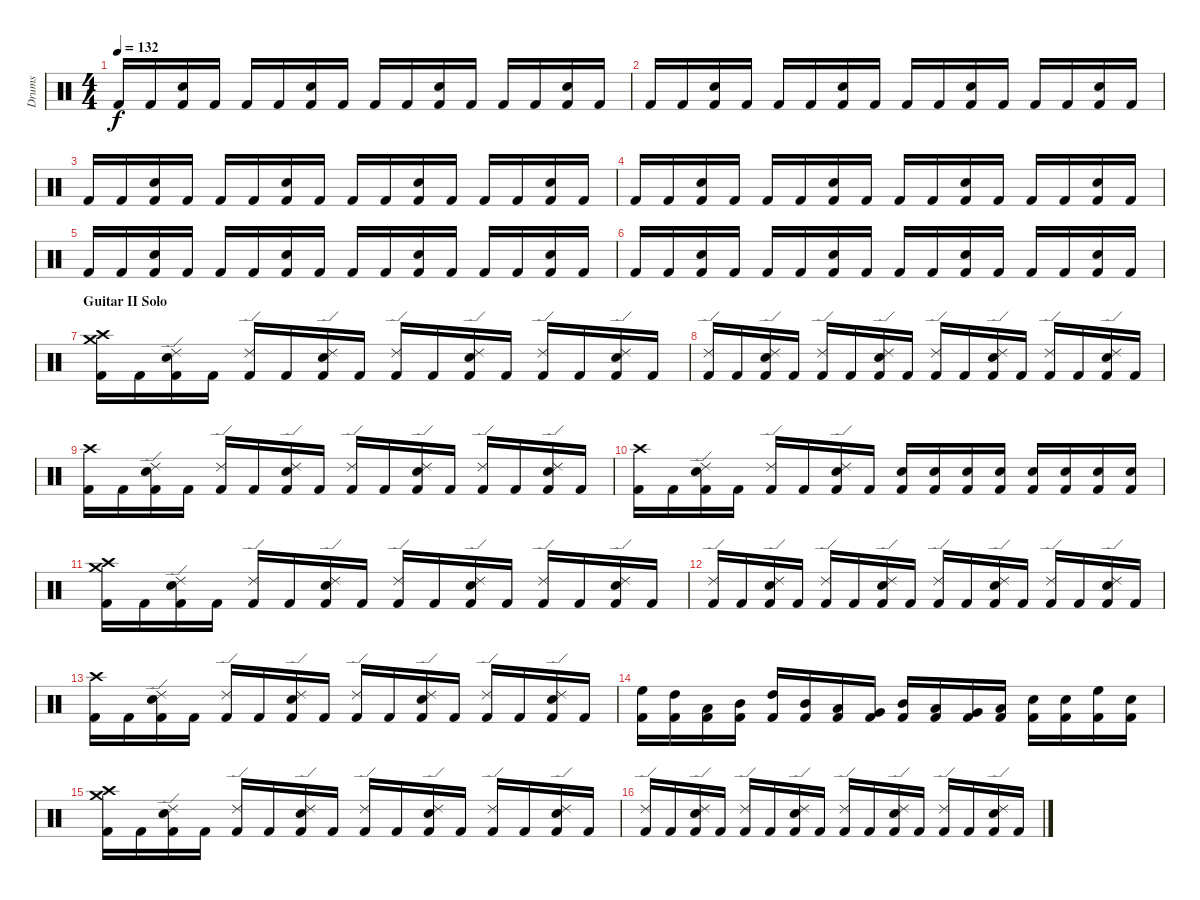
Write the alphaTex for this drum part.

\track ("Drums" "Drums") {instrument percussion}
\staff {score}
\articulation defaults
\ts (4 4)
\tempo 132
\clef neutral
\ks c "Kick (hit) 2".16{dy f} "Kick (hit) 2".16
("Electric Snare (hit)" "Kick (hit) 2").16 "Kick (hit) 2".16 "Kick (hit) 2".16 "Kick (hit) 2".16 ("Electric Snare (hit)" "Kick (hit) 2").16 "Kick (hit) 2".16 "Kick (hit) 2".16 "Kick (hit) 2".16 ("Electric Snare (hit)" "Kick (hit) 2").16 "Kick (hit) 2".16 "Kick (hit) 2".16 "Kick (hit) 2".16 ("Electric Snare (hit)" "Kick (hit) 2").16 "Kick (hit) 2".16 |
"Kick (hit) 2".16 "Kick (hit) 2".16 ("Electric Snare (hit)" "Kick (hit) 2").16 "Kick (hit) 2".16 "Kick (hit) 2".16 "Kick (hit) 2".16 ("Electric Snare (hit)" "Kick (hit) 2").16 "Kick (hit) 2".16 "Kick (hit) 2".16 "Kick (hit) 2".16 ("Electric Snare (hit)" "Kick (hit) 2").16 "Kick (hit) 2".16 "Kick (hit) 2".16 "Kick (hit) 2".16 ("Electric Snare (hit)" "Kick (hit) 2").16 "Kick (hit) 2".16 |
"Kick (hit) 2".16 "Kick (hit) 2".16 ("Electric Snare (hit)" "Kick (hit) 2").16 "Kick (hit) 2".16 "Kick (hit) 2".16 "Kick (hit) 2".16 ("Electric Snare (hit)" "Kick (hit) 2").16 "Kick (hit) 2".16 "Kick (hit) 2".16 "Kick (hit) 2".16 ("Electric Snare (hit)" "Kick (hit) 2").16 "Kick (hit) 2".16 "Kick (hit) 2".16 "Kick (hit) 2".16 ("Electric Snare (hit)" "Kick (hit) 2").16 "Kick (hit) 2".16 |
"Kick (hit) 2".16 "Kick (hit) 2".16 ("Electric Snare (hit)" "Kick (hit) 2").16 "Kick (hit) 2".16 "Kick (hit) 2".16 "Kick (hit) 2".16 ("Electric Snare (hit)" "Kick (hit) 2").16 "Kick (hit) 2".16 "Kick (hit) 2".16 "Kick (hit) 2".16 ("Electric Snare (hit)" "Kick (hit) 2").16 "Kick (hit) 2".16 "Kick (hit) 2".16 "Kick (hit) 2".16 ("Electric Snare (hit)" "Kick (hit) 2").16 "Kick (hit) 2".16 |
"Kick (hit) 2".16 "Kick (hit) 2".16 ("Electric Snare (hit)" "Kick (hit) 2").16 "Kick (hit) 2".16 "Kick (hit) 2".16 "Kick (hit) 2".16 ("Electric Snare (hit)" "Kick (hit) 2").16 "Kick (hit) 2".16 "Kick (hit) 2".16 "Kick (hit) 2".16 ("Electric Snare (hit)" "Kick (hit) 2").16 "Kick (hit) 2".16 "Kick (hit) 2".16 "Kick (hit) 2".16 ("Electric Snare (hit)" "Kick (hit) 2").16 "Kick (hit) 2".16 |
"Kick (hit) 2".16 "Kick (hit) 2".16 ("Electric Snare (hit)" "Kick (hit) 2").16 "Kick (hit) 2".16 "Kick (hit) 2".16 "Kick (hit) 2".16 ("Electric Snare (hit)" "Kick (hit) 2").16 "Kick (hit) 2".16 "Kick (hit) 2".16 "Kick (hit) 2".16 ("Electric Snare (hit)" "Kick (hit) 2").16 "Kick (hit) 2".16 "Kick (hit) 2".16 "Kick (hit) 2".16 ("Electric Snare (hit)" "Kick (hit) 2").16 "Kick (hit) 2".16 |
\section ("" "Guitar II Solo")
("Crash medium (hit)" "Crash high (hit)" "Kick (hit) 2").16 "Kick (hit) 2".16 ("Ride (edge) 2" "Electric Snare (hit)" "Kick (hit) 2").16 "Kick (hit) 2".16 ("Ride (edge) 2" "Kick (hit) 2").16 "Kick (hit) 2".16 ("Ride (edge) 2" "Electric Snare (hit)" "Kick (hit) 2").16 "Kick (hit) 2".16 ("Ride (edge) 2" "Kick (hit) 2").16 "Kick (hit) 2".16 ("Ride (edge) 2" "Electric Snare (hit)" "Kick (hit) 2").16 "Kick (hit) 2".16 ("Ride (edge) 2" "Kick (hit) 2").16 "Kick (hit) 2".16 ("Ride (edge) 2" "Electric Snare (hit)" "Kick (hit) 2").16 "Kick (hit) 2".16 |
("Ride (edge) 2" "Kick (hit) 2").16 "Kick (hit) 2".16 ("Ride (edge) 2" "Electric Snare (hit)" "Kick (hit) 2").16 "Kick (hit) 2".16 ("Ride (edge) 2" "Kick (hit) 2").16 "Kick (hit) 2".16 ("Ride (edge) 2" "Electric Snare (hit)" "Kick (hit) 2").16 "Kick (hit) 2".16 ("Ride (edge) 2" "Kick (hit) 2").16 "Kick (hit) 2".16 ("Ride (edge) 2" "Electric Snare (hit)" "Kick (hit) 2").16 "Kick (hit) 2".16 ("Ride (edge) 2" "Kick (hit) 2").16 "Kick (hit) 2".16 ("Ride (edge) 2" "Electric Snare (hit)" "Kick (hit) 2").16 "Kick (hit) 2".16 |
("Crash high (hit)" "Kick (hit) 2").16 "Kick (hit) 2".16 ("Ride (edge) 2" "Electric Snare (hit)" "Kick (hit) 2").16 "Kick (hit) 2".16 ("Ride (edge) 2" "Kick (hit) 2").16 "Kick (hit) 2".16 ("Ride (edge) 2" "Electric Snare (hit)" "Kick (hit) 2").16 "Kick (hit) 2".16 ("Ride (edge) 2" "Kick (hit) 2").16 "Kick (hit) 2".16 ("Ride (edge) 2" "Electric Snare (hit)" "Kick (hit) 2").16 "Kick (hit) 2".16 ("Ride (edge) 2" "Kick (hit) 2").16 "Kick (hit) 2".16 ("Ride (edge) 2" "Electric Snare (hit)" "Kick (hit) 2").16 "Kick (hit) 2".16 |
("Crash high (hit)" "Kick (hit) 2").16 "Kick (hit) 2".16 ("Ride (edge) 2" "Electric Snare (hit)" "Kick (hit) 2").16 "Kick (hit) 2".16 ("Ride (edge) 2" "Kick (hit) 2").16 "Kick (hit) 2".16 ("Ride (edge) 2" "Electric Snare (hit)" "Kick (hit) 2").16 "Kick (hit) 2".16 ("Electric Snare (hit)" "Kick (hit) 2").16 ("Electric Snare (hit)" "Kick (hit) 2").16 ("Electric Snare (hit)" "Kick (hit) 2").16 ("Electric Snare (hit)" "Kick (hit) 2").16 ("Electric Snare (hit)" "Kick (hit) 2").16 ("Electric Snare (hit)" "Kick (hit) 2").16 ("Electric Snare (hit)" "Kick (hit) 2").16 ("Electric Snare (hit)" "Kick (hit) 2").16 |
("Crash medium (hit)" "Crash high (hit)" "Kick (hit) 2").16 "Kick (hit) 2".16 ("Ride (edge) 2" "Electric Snare (hit)" "Kick (hit) 2").16 "Kick (hit) 2".16 ("Ride (edge) 2" "Kick (hit) 2").16 "Kick (hit) 2".16 ("Ride (edge) 2" "Electric Snare (hit)" "Kick (hit) 2").16 "Kick (hit) 2".16 ("Ride (edge) 2" "Kick (hit) 2").16 "Kick (hit) 2".16 ("Ride (edge) 2" "Electric Snare (hit)" "Kick (hit) 2").16 "Kick (hit) 2".16 ("Ride (edge) 2" "Kick (hit) 2").16 "Kick (hit) 2".16 ("Ride (edge) 2" "Electric Snare (hit)" "Kick (hit) 2").16 "Kick (hit) 2".16 |
("Ride (edge) 2" "Kick (hit) 2").16 "Kick (hit) 2".16 ("Ride (edge) 2" "Electric Snare (hit)" "Kick (hit) 2").16 "Kick (hit) 2".16 ("Ride (edge) 2" "Kick (hit) 2").16 "Kick (hit) 2".16 ("Ride (edge) 2" "Electric Snare (hit)" "Kick (hit) 2").16 "Kick (hit) 2".16 ("Ride (edge) 2" "Kick (hit) 2").16 "Kick (hit) 2".16 ("Ride (edge) 2" "Electric Snare (hit)" "Kick (hit) 2").16 "Kick (hit) 2".16 ("Ride (edge) 2" "Kick (hit) 2").16 "Kick (hit) 2".16 ("Ride (edge) 2" "Electric Snare (hit)" "Kick (hit) 2").16 "Kick (hit) 2".16 |
("Crash high (hit)" "Kick (hit) 2").16 "Kick (hit) 2".16 ("Ride (edge) 2" "Electric Snare (hit)" "Kick (hit) 2").16 "Kick (hit) 2".16 ("Ride (edge) 2" "Kick (hit) 2").16 "Kick (hit) 2".16 ("Ride (edge) 2" "Electric Snare (hit)" "Kick (hit) 2").16 "Kick (hit) 2".16 ("Ride (edge) 2" "Kick (hit) 2").16 "Kick (hit) 2".16 ("Ride (edge) 2" "Electric Snare (hit)" "Kick (hit) 2").16 "Kick (hit) 2".16 ("Ride (edge) 2" "Kick (hit) 2").16 "Kick (hit) 2".16 ("Ride (edge) 2" "Electric Snare (hit)" "Kick (hit) 2").16 "Kick (hit) 2".16 |
("High Floor Tom (hit)" "Kick (hit) 2").16 ("High Tom (hit)" "Kick (hit) 2").16 ("Low Tom (hit)" "Kick (hit) 2").16 ("Mid Tom (hit)" "Kick (hit) 2").16 ("High Tom (hit)" "Kick (hit) 2").16 ("Mid Tom (hit)" "Kick (hit) 2").16 ("Low Tom (hit)" "Kick (hit) 2").16 ("Very Low Tom (hit)" "Kick (hit) 2").16 ("Mid Tom (hit)" "Kick (hit) 2").16 ("Low Tom (hit)" "Kick (hit) 2").16 ("Very Low Tom (hit)" "Kick (hit) 2").16 ("Low Floor Tom (hit)" "Kick (hit) 2").16 ("Electric Snare (hit)" "Kick (hit) 2").16 ("Electric Snare (hit)" "Kick (hit) 2").16 ("High Floor Tom (hit)" "Kick (hit) 2").16 ("Electric Snare (hit)" "Kick (hit) 2").16 |
("Crash medium (hit)" "Crash high (hit)" "Kick (hit) 2").16 "Kick (hit) 2".16 ("Ride (edge) 2" "Electric Snare (hit)" "Kick (hit) 2").16 "Kick (hit) 2".16 ("Ride (edge) 2" "Kick (hit) 2").16 "Kick (hit) 2".16 ("Ride (edge) 2" "Electric Snare (hit)" "Kick (hit) 2").16 "Kick (hit) 2".16 ("Ride (edge) 2" "Kick (hit) 2").16 "Kick (hit) 2".16 ("Ride (edge) 2" "Electric Snare (hit)" "Kick (hit) 2").16 "Kick (hit) 2".16 ("Ride (edge) 2" "Kick (hit) 2").16 "Kick (hit) 2".16 ("Ride (edge) 2" "Electric Snare (hit)" "Kick (hit) 2").16 "Kick (hit) 2".16 |
("Ride (edge) 2" "Kick (hit) 2").16 "Kick (hit) 2".16 ("Ride (edge) 2" "Electric Snare (hit)" "Kick (hit) 2").16 "Kick (hit) 2".16 ("Ride (edge) 2" "Kick (hit) 2").16 "Kick (hit) 2".16 ("Ride (edge) 2" "Electric Snare (hit)" "Kick (hit) 2").16 "Kick (hit) 2".16 ("Ride (edge) 2" "Kick (hit) 2").16 "Kick (hit) 2".16 ("Ride (edge) 2" "Electric Snare (hit)" "Kick (hit) 2").16 "Kick (hit) 2".16 ("Ride (edge) 2" "Kick (hit) 2").16 "Kick (hit) 2".16 ("Ride (edge) 2" "Electric Snare (hit)" "Kick (hit) 2").16 "Kick (hit) 2".16
